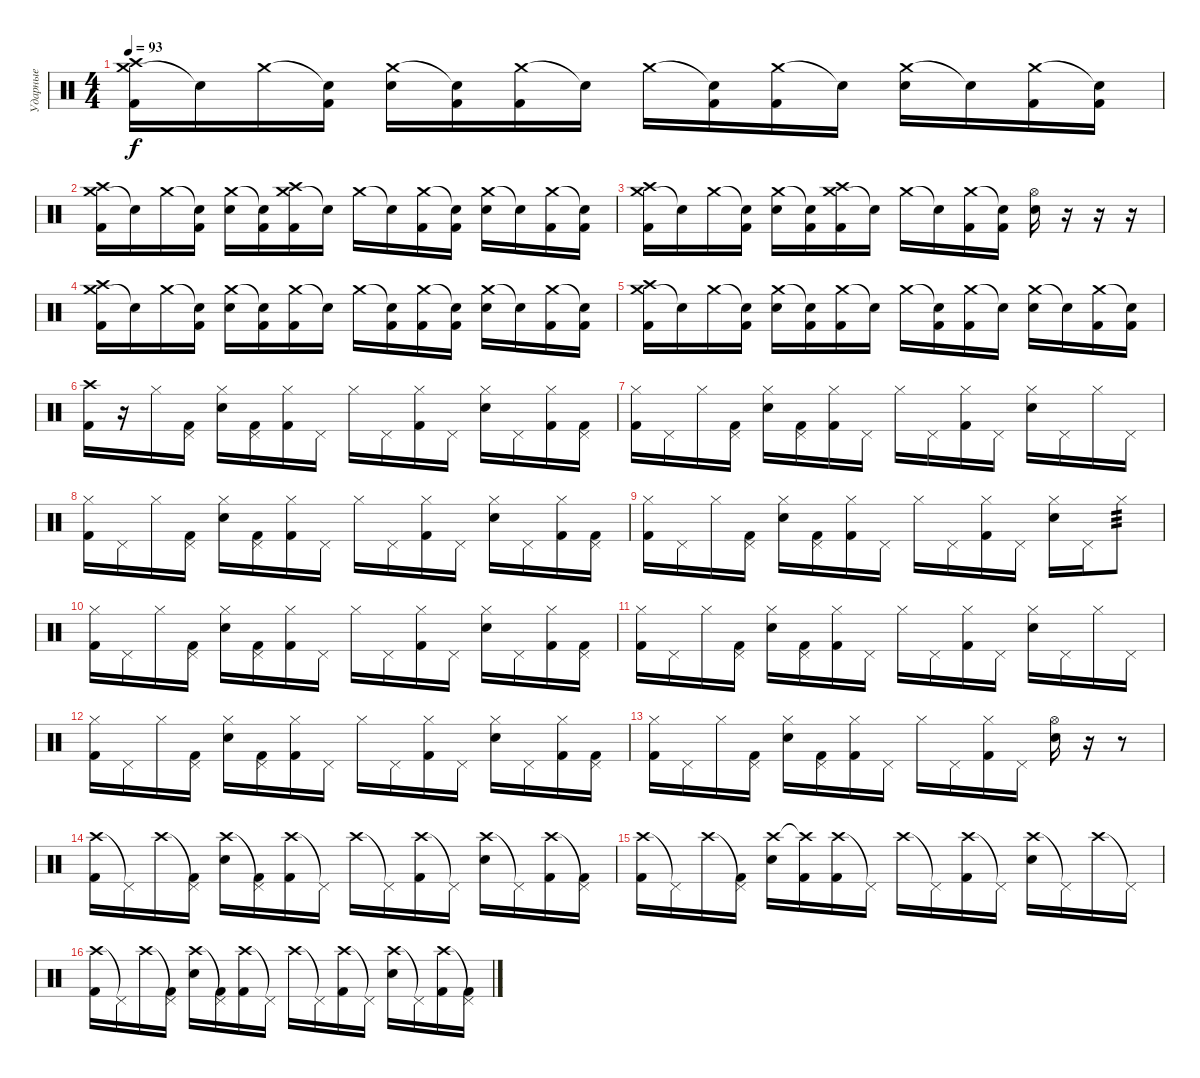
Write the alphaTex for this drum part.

\track ("Ударные" "Ударные") {instrument percussion}
\staff {score}
\articulation defaults
\ts (4 4)
\tempo 93
\clef neutral
\ks c
("Crash medium (hit)" "Crash high (hit)" "Kick (hit) 2").16{dy f} "Snare (hit)"{t}.16 "Crash medium (hit)".16 ("Snare (hit)"{t} "Kick (hit) 2").16 ("Crash medium (hit)" "Electric Snare (hit)").16 ("Snare (hit)"{t} "Kick (hit) 2").16 ("Crash medium (hit)" "Kick (hit) 2").16 "Snare (hit)"{t}.16 "Crash medium (hit)".16 ("Snare (hit)"{t} "Kick (hit) 2").16 ("Crash medium (hit)" "Kick (hit) 2").16 "Snare (hit)"{t}.16 ("Crash medium (hit)" "Electric Snare (hit)").16 "Snare (hit)"{t}.16 ("Crash medium (hit)" "Kick (hit) 2").16 ("Snare (hit)"{t} "Kick (hit) 2").16 |
("Crash medium (hit)" "Crash high (hit)" "Kick (hit) 2").16 "Snare (hit)"{t}.16 "Crash medium (hit)".16 ("Snare (hit)"{t} "Kick (hit) 2").16 ("Crash medium (hit)" "Electric Snare (hit)").16 ("Snare (hit)"{t} "Kick (hit) 2").16 ("Crash medium (hit)" "Crash high (hit)" "Kick (hit) 2").16 "Snare (hit)"{t}.16 "Crash medium (hit)".16 "Snare (hit)"{t}.16 ("Crash medium (hit)" "Kick (hit) 2").16 ("Snare (hit)"{t} "Kick (hit) 2").16 ("Crash medium (hit)" "Electric Snare (hit)").16 "Snare (hit)"{t}.16 ("Crash medium (hit)" "Kick (hit) 2").16 ("Snare (hit)"{t} "Kick (hit) 2").16 |
("Crash medium (hit)" "Crash high (hit)" "Kick (hit) 2").16 "Snare (hit)"{t}.16 "Crash medium (hit)".16 ("Snare (hit)"{t} "Kick (hit) 2").16 ("Crash medium (hit)" "Electric Snare (hit)").16 ("Snare (hit)"{t} "Kick (hit) 2").16 ("Crash medium (hit)" "Crash high (hit)" "Kick (hit) 2").16 "Snare (hit)"{t}.16 "Crash medium (hit)".16 "Snare (hit)"{t}.16 ("Crash medium (hit)" "Kick (hit) 2").16 ("Snare (hit)"{t} "Kick (hit) 2").16 ("Hi-Hat (open)" "Electric Snare (hit)").16 r.16 r.16 r.16 |
("Crash medium (hit)" "Crash high (hit)" "Kick (hit) 2").16 "Snare (hit)"{t}.16 "Crash medium (hit)".16 ("Snare (hit)"{t} "Kick (hit) 2").16 ("Crash medium (hit)" "Electric Snare (hit)").16 ("Snare (hit)"{t} "Kick (hit) 2").16 ("Crash medium (hit)" "Kick (hit) 2").16 "Snare (hit)"{t}.16 "Crash medium (hit)".16 ("Snare (hit)"{t} "Kick (hit) 2").16 ("Crash medium (hit)" "Kick (hit) 2").16 ("Snare (hit)"{t} "Kick (hit) 2").16 ("Crash medium (hit)" "Electric Snare (hit)").16 "Snare (hit)"{t}.16 ("Crash medium (hit)" "Kick (hit) 2").16 ("Snare (hit)"{t} "Kick (hit) 2").16 |
("Crash medium (hit)" "Crash high (hit)" "Kick (hit) 2").16 "Snare (hit)"{t}.16 "Crash medium (hit)".16 ("Snare (hit)"{t} "Kick (hit) 2").16 ("Crash medium (hit)" "Electric Snare (hit)").16 ("Snare (hit)"{t} "Kick (hit) 2").16 ("Crash medium (hit)" "Kick (hit) 2").16 "Snare (hit)"{t}.16 "Crash medium (hit)".16 ("Snare (hit)"{t} "Kick (hit) 2").16 ("Crash medium (hit)" "Kick (hit) 2").16 "Snare (hit)"{t}.16 ("Crash medium (hit)" "Electric Snare (hit)").16 "Snare (hit)"{t}.16 ("Crash medium (hit)" "Kick (hit) 2").16 ("Snare (hit)"{t} "Kick (hit) 2").16 |
("Crash high (hit)" "Kick (hit) 2").16 r.16 "Hi-Hat (closed)".16 ("Pedal Hi-Hat (hit)" "Kick (hit) 2").16 ("Hi-Hat (closed)" "Electric Snare (hit)").16 ("Pedal Hi-Hat (hit)" "Kick (hit) 2").16 ("Hi-Hat (closed)" "Kick (hit) 2").16 "Pedal Hi-Hat (hit)".16 "Hi-Hat (closed)".16 "Pedal Hi-Hat (hit)".16 ("Hi-Hat (closed)" "Kick (hit) 2").16 "Pedal Hi-Hat (hit)".16 ("Hi-Hat (closed)" "Electric Snare (hit)").16 "Pedal Hi-Hat (hit)".16 ("Hi-Hat (closed)" "Kick (hit) 2").16 ("Pedal Hi-Hat (hit)" "Kick (hit) 2").16 |
("Hi-Hat (closed)" "Kick (hit) 2").16 "Pedal Hi-Hat (hit)".16 "Hi-Hat (closed)".16 ("Pedal Hi-Hat (hit)" "Kick (hit) 2").16 ("Hi-Hat (closed)" "Electric Snare (hit)").16 ("Pedal Hi-Hat (hit)" "Kick (hit) 2").16 ("Hi-Hat (closed)" "Kick (hit) 2").16 "Pedal Hi-Hat (hit)".16 "Hi-Hat (closed)".16 "Pedal Hi-Hat (hit)".16 ("Hi-Hat (closed)" "Kick (hit) 2").16 "Pedal Hi-Hat (hit)".16 ("Hi-Hat (closed)" "Electric Snare (hit)").16 "Pedal Hi-Hat (hit)".16 "Hi-Hat (closed)".16 "Pedal Hi-Hat (hit)".16 |
("Hi-Hat (closed)" "Kick (hit) 2").16 "Pedal Hi-Hat (hit)".16 "Hi-Hat (closed)".16 ("Pedal Hi-Hat (hit)" "Kick (hit) 2").16 ("Hi-Hat (closed)" "Electric Snare (hit)").16 ("Pedal Hi-Hat (hit)" "Kick (hit) 2").16 ("Hi-Hat (closed)" "Kick (hit) 2").16 "Pedal Hi-Hat (hit)".16 "Hi-Hat (closed)".16 "Pedal Hi-Hat (hit)".16 ("Hi-Hat (closed)" "Kick (hit) 2").16 "Pedal Hi-Hat (hit)".16 ("Hi-Hat (closed)" "Electric Snare (hit)").16 "Pedal Hi-Hat (hit)".16 ("Hi-Hat (closed)" "Kick (hit) 2").16 ("Pedal Hi-Hat (hit)" "Kick (hit) 2").16 |
("Hi-Hat (closed)" "Kick (hit) 2").16 "Pedal Hi-Hat (hit)".16 "Hi-Hat (closed)".16 ("Pedal Hi-Hat (hit)" "Kick (hit) 2").16 ("Hi-Hat (closed)" "Electric Snare (hit)").16 ("Pedal Hi-Hat (hit)" "Kick (hit) 2").16 ("Hi-Hat (closed)" "Kick (hit) 2").16 "Pedal Hi-Hat (hit)".16 "Hi-Hat (closed)".16 "Pedal Hi-Hat (hit)".16 ("Hi-Hat (closed)" "Kick (hit) 2").16 "Pedal Hi-Hat (hit)".16 ("Hi-Hat (closed)" "Electric Snare (hit)").16 "Pedal Hi-Hat (hit)".16 "Hi-Hat (closed)".8{tp 3} |
("Hi-Hat (closed)" "Kick (hit) 2").16 "Pedal Hi-Hat (hit)".16 "Hi-Hat (closed)".16 ("Pedal Hi-Hat (hit)" "Kick (hit) 2").16 ("Hi-Hat (closed)" "Electric Snare (hit)").16 ("Pedal Hi-Hat (hit)" "Kick (hit) 2").16 ("Hi-Hat (closed)" "Kick (hit) 2").16 "Pedal Hi-Hat (hit)".16 "Hi-Hat (closed)".16 "Pedal Hi-Hat (hit)".16 ("Hi-Hat (closed)" "Kick (hit) 2").16 "Pedal Hi-Hat (hit)".16 ("Hi-Hat (closed)" "Electric Snare (hit)").16 "Pedal Hi-Hat (hit)".16 ("Hi-Hat (closed)" "Kick (hit) 2").16 ("Pedal Hi-Hat (hit)" "Kick (hit) 2").16 |
("Hi-Hat (closed)" "Kick (hit) 2").16 "Pedal Hi-Hat (hit)".16 "Hi-Hat (closed)".16 ("Pedal Hi-Hat (hit)" "Kick (hit) 2").16 ("Hi-Hat (closed)" "Electric Snare (hit)").16 ("Pedal Hi-Hat (hit)" "Kick (hit) 2").16 ("Hi-Hat (closed)" "Kick (hit) 2").16 "Pedal Hi-Hat (hit)".16 "Hi-Hat (closed)".16 "Pedal Hi-Hat (hit)".16 ("Hi-Hat (closed)" "Kick (hit) 2").16 "Pedal Hi-Hat (hit)".16 ("Hi-Hat (closed)" "Electric Snare (hit)").16 "Pedal Hi-Hat (hit)".16 "Hi-Hat (closed)".16 "Pedal Hi-Hat (hit)".16 |
("Hi-Hat (closed)" "Kick (hit) 2").16 "Pedal Hi-Hat (hit)".16 "Hi-Hat (closed)".16 ("Pedal Hi-Hat (hit)" "Kick (hit) 2").16 ("Hi-Hat (closed)" "Electric Snare (hit)").16 ("Pedal Hi-Hat (hit)" "Kick (hit) 2").16 ("Hi-Hat (closed)" "Kick (hit) 2").16 "Pedal Hi-Hat (hit)".16 "Hi-Hat (closed)".16 "Pedal Hi-Hat (hit)".16 ("Hi-Hat (closed)" "Kick (hit) 2").16 "Pedal Hi-Hat (hit)".16 ("Hi-Hat (closed)" "Electric Snare (hit)").16 "Pedal Hi-Hat (hit)".16 ("Hi-Hat (closed)" "Kick (hit) 2").16 ("Pedal Hi-Hat (hit)" "Kick (hit) 2").16 |
("Hi-Hat (closed)" "Kick (hit) 2").16 "Pedal Hi-Hat (hit)".16 "Hi-Hat (closed)".16 ("Pedal Hi-Hat (hit)" "Kick (hit) 2").16 ("Hi-Hat (closed)" "Electric Snare (hit)").16 ("Pedal Hi-Hat (hit)" "Kick (hit) 2").16 ("Hi-Hat (closed)" "Kick (hit) 2").16 "Pedal Hi-Hat (hit)".16 "Hi-Hat (closed)".16 "Pedal Hi-Hat (hit)".16 ("Hi-Hat (closed)" "Kick (hit) 2").16 "Pedal Hi-Hat (hit)".16 ("Hi-Hat (open)" "Electric Snare (hit)").16 r.16{volume 0} r.8 |
("Crash high (hit)" "Kick (hit) 2").16{volume 14} "Pedal Hi-Hat (hit)"{t}.16 "Crash high (hit)".16 ("Pedal Hi-Hat (hit)"{t} "Kick (hit) 2").16 ("Crash high (hit)" "Electric Snare (hit)").16 ("Pedal Hi-Hat (hit)"{t} "Kick (hit) 2").16 ("Crash high (hit)" "Kick (hit) 2").16 "Pedal Hi-Hat (hit)"{t}.16 "Crash high (hit)".16 "Pedal Hi-Hat (hit)"{t}.16 ("Crash high (hit)" "Kick (hit) 2").16 "Pedal Hi-Hat (hit)"{t}.16 ("Crash high (hit)" "Electric Snare (hit)").16 "Pedal Hi-Hat (hit)"{t}.16 ("Crash high (hit)" "Kick (hit) 2").16 ("Pedal Hi-Hat (hit)"{t} "Kick (hit) 2").16 |
("Crash high (hit)" "Kick (hit) 2").16 "Pedal Hi-Hat (hit)"{t}.16 "Crash high (hit)".16 ("Pedal Hi-Hat (hit)"{t} "Kick (hit) 2").16 ("Crash high (hit)" "Electric Snare (hit)").16 ("Crash high (hit)"{t} "Kick (hit) 2").16 ("Crash high (hit)" "Kick (hit) 2").16 "Pedal Hi-Hat (hit)"{t}.16 "Crash high (hit)".16 "Pedal Hi-Hat (hit)"{t}.16 ("Crash high (hit)" "Kick (hit) 2").16 "Pedal Hi-Hat (hit)"{t}.16 ("Crash high (hit)" "Electric Snare (hit)").16 "Pedal Hi-Hat (hit)"{t}.16 "Crash high (hit)".16 "Pedal Hi-Hat (hit)"{t}.16 |
("Crash high (hit)" "Kick (hit) 2").16 "Pedal Hi-Hat (hit)"{t}.16 "Crash high (hit)".16 ("Pedal Hi-Hat (hit)"{t} "Kick (hit) 2").16 ("Crash high (hit)" "Electric Snare (hit)").16 ("Pedal Hi-Hat (hit)"{t} "Kick (hit) 2").16 ("Crash high (hit)" "Kick (hit) 2").16 "Pedal Hi-Hat (hit)"{t}.16 "Crash high (hit)".16 "Pedal Hi-Hat (hit)"{t}.16 ("Crash high (hit)" "Kick (hit) 2").16 "Pedal Hi-Hat (hit)"{t}.16 ("Crash high (hit)" "Electric Snare (hit)").16 "Pedal Hi-Hat (hit)"{t}.16 ("Crash high (hit)" "Kick (hit) 2").16 ("Pedal Hi-Hat (hit)"{t} "Kick (hit) 2").16
